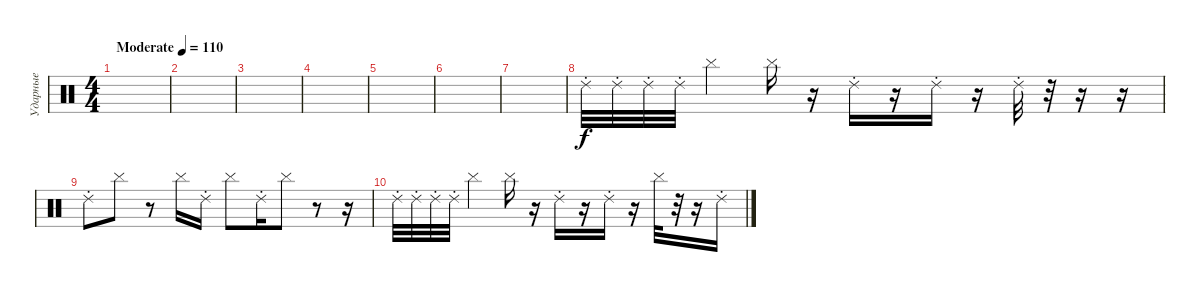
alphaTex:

\track ("Ударные" "Ударные") {instrument percussion}
\staff {score}
\articulation defaults
\ts (4 4)
\tempo (110 "Moderate")
\clef neutral
\ks c
|
|
|
|
|
|
|
"Ride (choke) 2".32 "Ride (choke) 2".32 "Ride (choke) 2".32 "Ride (choke) 2".32 "Cymbal (hit)".4 "Cymbal (hit)".16 r.16 "Ride (choke) 2".16 r.16 "Ride (choke) 2".16 r.16 "Ride (choke) 2".32 r.32 r.16 r.16 |
"Ride (choke) 2".8 "Cymbal (hit)".8 r.8 "Cymbal (hit)".16 "Ride (choke) 2".16 "Cymbal (hit)".8 "Ride (choke) 2".16 "Cymbal (hit)".8 r.8 r.16 |
"Ride (choke) 2".32 "Ride (choke) 2".32 "Ride (choke) 2".32 "Ride (choke) 2".32 "Cymbal (hit)".4 "Cymbal (hit)".16 r.16 "Ride (choke) 2".16 r.16 "Ride (choke) 2".16 r.16 "Cymbal (hit)".32 r.32 r.16 "Ride (choke) 2".16
